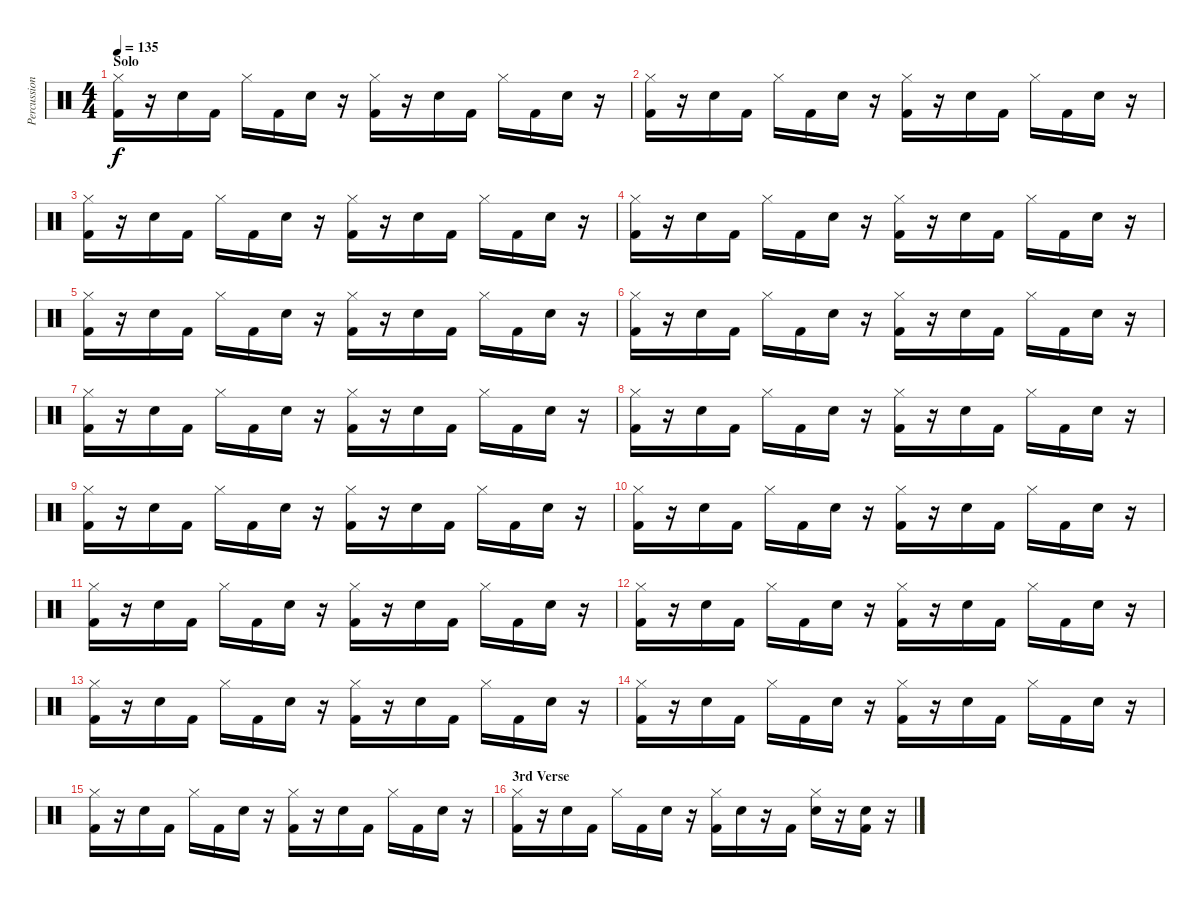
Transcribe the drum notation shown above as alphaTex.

\track ("Percussion" "Percussion") {instrument percussion}
\staff {score}
\articulation defaults
\ts (4 4)
\section ("" "Solo")
\tempo 135
\clef neutral
\ks c
("Hi-Hat (closed)" "Kick (hit) 2").16{dy f} r.16 "Snare (hit) 2".16 "Kick (hit) 2".16 "Hi-Hat (closed)".16 "Kick (hit) 2".16 "Snare (hit) 2".16 r.16 ("Hi-Hat (closed)" "Kick (hit) 2").16 r.16 "Snare (hit) 2".16 "Kick (hit) 2".16 "Hi-Hat (closed)".16 "Kick (hit) 2".16 "Snare (hit) 2".16 r.16 |
("Hi-Hat (closed)" "Kick (hit) 2").16 r.16 "Snare (hit) 2".16 "Kick (hit) 2".16 "Hi-Hat (closed)".16 "Kick (hit) 2".16 "Snare (hit) 2".16 r.16 ("Hi-Hat (closed)" "Kick (hit) 2").16 r.16 "Snare (hit) 2".16 "Kick (hit) 2".16 "Hi-Hat (closed)".16 "Kick (hit) 2".16 "Snare (hit) 2".16 r.16 |
("Hi-Hat (closed)" "Kick (hit) 2").16 r.16 "Snare (hit) 2".16 "Kick (hit) 2".16 "Hi-Hat (closed)".16 "Kick (hit) 2".16 "Snare (hit) 2".16 r.16 ("Hi-Hat (closed)" "Kick (hit) 2").16 r.16 "Snare (hit) 2".16 "Kick (hit) 2".16 "Hi-Hat (closed)".16 "Kick (hit) 2".16 "Snare (hit) 2".16 r.16 |
("Hi-Hat (closed)" "Kick (hit) 2").16 r.16 "Snare (hit) 2".16 "Kick (hit) 2".16 "Hi-Hat (closed)".16 "Kick (hit) 2".16 "Snare (hit) 2".16 r.16 ("Hi-Hat (closed)" "Kick (hit) 2").16 r.16 "Snare (hit) 2".16 "Kick (hit) 2".16 "Hi-Hat (closed)".16 "Kick (hit) 2".16 "Snare (hit) 2".16 r.16 |
("Hi-Hat (closed)" "Kick (hit) 2").16 r.16 "Snare (hit) 2".16 "Kick (hit) 2".16 "Hi-Hat (closed)".16 "Kick (hit) 2".16 "Snare (hit) 2".16 r.16 ("Hi-Hat (closed)" "Kick (hit) 2").16 r.16 "Snare (hit) 2".16 "Kick (hit) 2".16 "Hi-Hat (closed)".16 "Kick (hit) 2".16 "Snare (hit) 2".16 r.16 |
("Hi-Hat (closed)" "Kick (hit) 2").16 r.16 "Snare (hit) 2".16 "Kick (hit) 2".16 "Hi-Hat (closed)".16 "Kick (hit) 2".16 "Snare (hit) 2".16 r.16 ("Hi-Hat (closed)" "Kick (hit) 2").16 r.16 "Snare (hit) 2".16 "Kick (hit) 2".16 "Hi-Hat (closed)".16 "Kick (hit) 2".16 "Snare (hit) 2".16 r.16 |
("Hi-Hat (closed)" "Kick (hit) 2").16 r.16 "Snare (hit) 2".16 "Kick (hit) 2".16 "Hi-Hat (closed)".16 "Kick (hit) 2".16 "Snare (hit) 2".16 r.16 ("Hi-Hat (closed)" "Kick (hit) 2").16 r.16 "Snare (hit) 2".16 "Kick (hit) 2".16 "Hi-Hat (closed)".16 "Kick (hit) 2".16 "Snare (hit) 2".16 r.16 |
("Hi-Hat (closed)" "Kick (hit) 2").16 r.16 "Snare (hit) 2".16 "Kick (hit) 2".16 "Hi-Hat (closed)".16 "Kick (hit) 2".16 "Snare (hit) 2".16 r.16 ("Hi-Hat (closed)" "Kick (hit) 2").16 r.16 "Snare (hit) 2".16 "Kick (hit) 2".16 "Hi-Hat (closed)".16 "Kick (hit) 2".16 "Snare (hit) 2".16 r.16 |
("Hi-Hat (closed)" "Kick (hit) 2").16 r.16 "Snare (hit) 2".16 "Kick (hit) 2".16 "Hi-Hat (closed)".16 "Kick (hit) 2".16 "Snare (hit) 2".16 r.16 ("Hi-Hat (closed)" "Kick (hit) 2").16 r.16 "Snare (hit) 2".16 "Kick (hit) 2".16 "Hi-Hat (closed)".16 "Kick (hit) 2".16 "Snare (hit) 2".16 r.16 |
("Hi-Hat (closed)" "Kick (hit) 2").16 r.16 "Snare (hit) 2".16 "Kick (hit) 2".16 "Hi-Hat (closed)".16 "Kick (hit) 2".16 "Snare (hit) 2".16 r.16 ("Hi-Hat (closed)" "Kick (hit) 2").16 r.16 "Snare (hit) 2".16 "Kick (hit) 2".16 "Hi-Hat (closed)".16 "Kick (hit) 2".16 "Snare (hit) 2".16 r.16 |
("Hi-Hat (closed)" "Kick (hit) 2").16 r.16 "Snare (hit) 2".16 "Kick (hit) 2".16 "Hi-Hat (closed)".16 "Kick (hit) 2".16 "Snare (hit) 2".16 r.16 ("Hi-Hat (closed)" "Kick (hit) 2").16 r.16 "Snare (hit) 2".16 "Kick (hit) 2".16 "Hi-Hat (closed)".16 "Kick (hit) 2".16 "Snare (hit) 2".16 r.16 |
("Hi-Hat (closed)" "Kick (hit) 2").16 r.16 "Snare (hit) 2".16 "Kick (hit) 2".16 "Hi-Hat (closed)".16 "Kick (hit) 2".16 "Snare (hit) 2".16 r.16 ("Hi-Hat (closed)" "Kick (hit) 2").16 r.16 "Snare (hit) 2".16 "Kick (hit) 2".16 "Hi-Hat (closed)".16 "Kick (hit) 2".16 "Snare (hit) 2".16 r.16 |
("Hi-Hat (closed)" "Kick (hit) 2").16 r.16 "Snare (hit) 2".16 "Kick (hit) 2".16 "Hi-Hat (closed)".16 "Kick (hit) 2".16 "Snare (hit) 2".16 r.16 ("Hi-Hat (closed)" "Kick (hit) 2").16 r.16 "Snare (hit) 2".16 "Kick (hit) 2".16 "Hi-Hat (closed)".16 "Kick (hit) 2".16 "Snare (hit) 2".16 r.16 |
("Hi-Hat (closed)" "Kick (hit) 2").16 r.16 "Snare (hit) 2".16 "Kick (hit) 2".16 "Hi-Hat (closed)".16 "Kick (hit) 2".16 "Snare (hit) 2".16 r.16 ("Hi-Hat (closed)" "Kick (hit) 2").16 r.16 "Snare (hit) 2".16 "Kick (hit) 2".16 "Hi-Hat (closed)".16 "Kick (hit) 2".16 "Snare (hit) 2".16 r.16 |
("Hi-Hat (closed)" "Kick (hit) 2").16 r.16 "Snare (hit) 2".16 "Kick (hit) 2".16 "Hi-Hat (closed)".16 "Kick (hit) 2".16 "Snare (hit) 2".16 r.16 ("Hi-Hat (closed)" "Kick (hit) 2").16 r.16 "Snare (hit) 2".16 "Kick (hit) 2".16 "Hi-Hat (closed)".16 "Kick (hit) 2".16 "Snare (hit) 2".16 r.16 |
\section ("" "3rd Verse")
("Hi-Hat (closed)" "Kick (hit) 2").16 r.16 "Snare (hit) 2".16 "Kick (hit) 2".16 "Hi-Hat (closed)".16 "Kick (hit) 2".16 "Snare (hit) 2".16 r.16 ("Hi-Hat (closed)" "Kick (hit) 2").16 "Snare (hit) 2".16 r.16 "Kick (hit) 2".16 ("Hi-Hat (closed)" "Snare (hit) 2").16 r.16 ("Snare (hit) 2" "Kick (hit) 2").16 r.16
